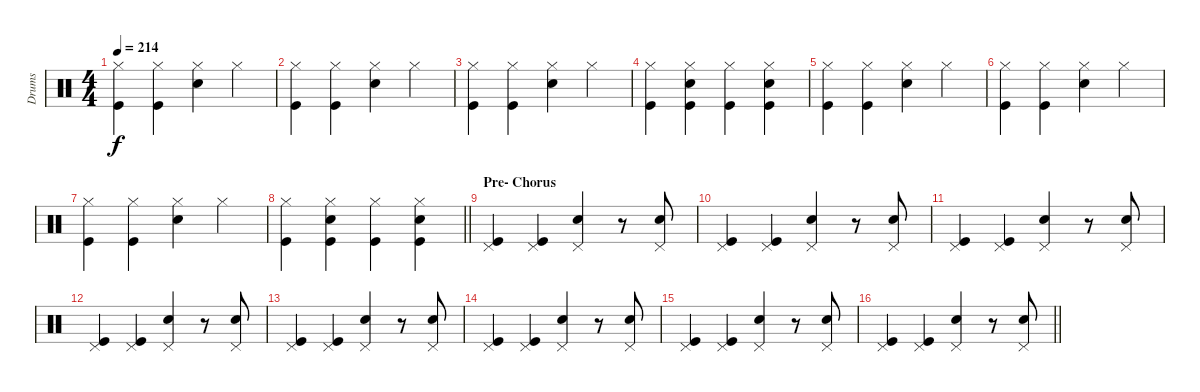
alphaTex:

\track ("Drums" "Drums") {instrument percussion}
\staff {score}
\articulation defaults
\ts (4 4)
\tempo 214
\clef neutral
\ks c
("Hi-Hat (closed)" "Kick (hit)").4{dy f} ("Hi-Hat (closed)" "Kick (hit)").4 ("Hi-Hat (closed)" "Snare (hit) 2").4 "Hi-Hat (closed)".4 |
("Hi-Hat (closed)" "Kick (hit)").4 ("Hi-Hat (closed)" "Kick (hit)").4 ("Hi-Hat (closed)" "Snare (hit) 2").4 "Hi-Hat (closed)".4 |
("Hi-Hat (closed)" "Kick (hit)").4 ("Hi-Hat (closed)" "Kick (hit)").4 ("Hi-Hat (closed)" "Snare (hit) 2").4 "Hi-Hat (closed)".4 |
("Hi-Hat (closed)" "Kick (hit)").4 ("Hi-Hat (closed)" "Snare (hit) 2" "Kick (hit)").4 ("Hi-Hat (closed)" "Kick (hit)").4 ("Hi-Hat (closed)" "Snare (hit) 2" "Kick (hit)").4 |
("Hi-Hat (closed)" "Kick (hit)").4 ("Hi-Hat (closed)" "Kick (hit)").4 ("Hi-Hat (closed)" "Snare (hit) 2").4 "Hi-Hat (closed)".4 |
("Hi-Hat (closed)" "Kick (hit)").4 ("Hi-Hat (closed)" "Kick (hit)").4 ("Hi-Hat (closed)" "Snare (hit) 2").4 "Hi-Hat (closed)".4 |
("Hi-Hat (closed)" "Kick (hit)").4 ("Hi-Hat (closed)" "Kick (hit)").4 ("Hi-Hat (closed)" "Snare (hit) 2").4 "Hi-Hat (closed)".4 |
\barLineRight lightlight
("Hi-Hat (closed)" "Kick (hit)").4 ("Hi-Hat (closed)" "Snare (hit) 2" "Kick (hit)").4 ("Hi-Hat (closed)" "Kick (hit)").4 ("Hi-Hat (closed)" "Snare (hit) 2" "Kick (hit)").4 |
\section ("" "Pre- Chorus")
("Pedal Hi-Hat (hit)" "Kick (hit)").4{volume 11} ("Pedal Hi-Hat (hit)" "Kick (hit)").4 ("Pedal Hi-Hat (hit)" "Snare (hit) 2").4 r.8 ("Pedal Hi-Hat (hit)" "Snare (hit) 2").8 |
("Pedal Hi-Hat (hit)" "Kick (hit)").4 ("Pedal Hi-Hat (hit)" "Kick (hit)").4 ("Pedal Hi-Hat (hit)" "Snare (hit) 2").4 r.8 ("Pedal Hi-Hat (hit)" "Snare (hit) 2").8 |
("Pedal Hi-Hat (hit)" "Kick (hit)").4 ("Pedal Hi-Hat (hit)" "Kick (hit)").4 ("Pedal Hi-Hat (hit)" "Snare (hit) 2").4 r.8 ("Pedal Hi-Hat (hit)" "Snare (hit) 2").8 |
("Pedal Hi-Hat (hit)" "Kick (hit)").4 ("Pedal Hi-Hat (hit)" "Kick (hit)").4 ("Pedal Hi-Hat (hit)" "Snare (hit) 2").4 r.8 ("Pedal Hi-Hat (hit)" "Snare (hit) 2").8 |
("Pedal Hi-Hat (hit)" "Kick (hit)").4 ("Pedal Hi-Hat (hit)" "Kick (hit)").4 ("Pedal Hi-Hat (hit)" "Snare (hit) 2").4 r.8 ("Pedal Hi-Hat (hit)" "Snare (hit) 2").8 |
("Pedal Hi-Hat (hit)" "Kick (hit)").4 ("Pedal Hi-Hat (hit)" "Kick (hit)").4 ("Pedal Hi-Hat (hit)" "Snare (hit) 2").4 r.8 ("Pedal Hi-Hat (hit)" "Snare (hit) 2").8 |
("Pedal Hi-Hat (hit)" "Kick (hit)").4 ("Pedal Hi-Hat (hit)" "Kick (hit)").4 ("Pedal Hi-Hat (hit)" "Snare (hit) 2").4 r.8 ("Pedal Hi-Hat (hit)" "Snare (hit) 2").8 |
\barLineRight lightlight
("Pedal Hi-Hat (hit)" "Kick (hit)").4 ("Pedal Hi-Hat (hit)" "Kick (hit)").4 ("Pedal Hi-Hat (hit)" "Snare (hit) 2").4 r.8 ("Pedal Hi-Hat (hit)" "Snare (hit) 2").8
